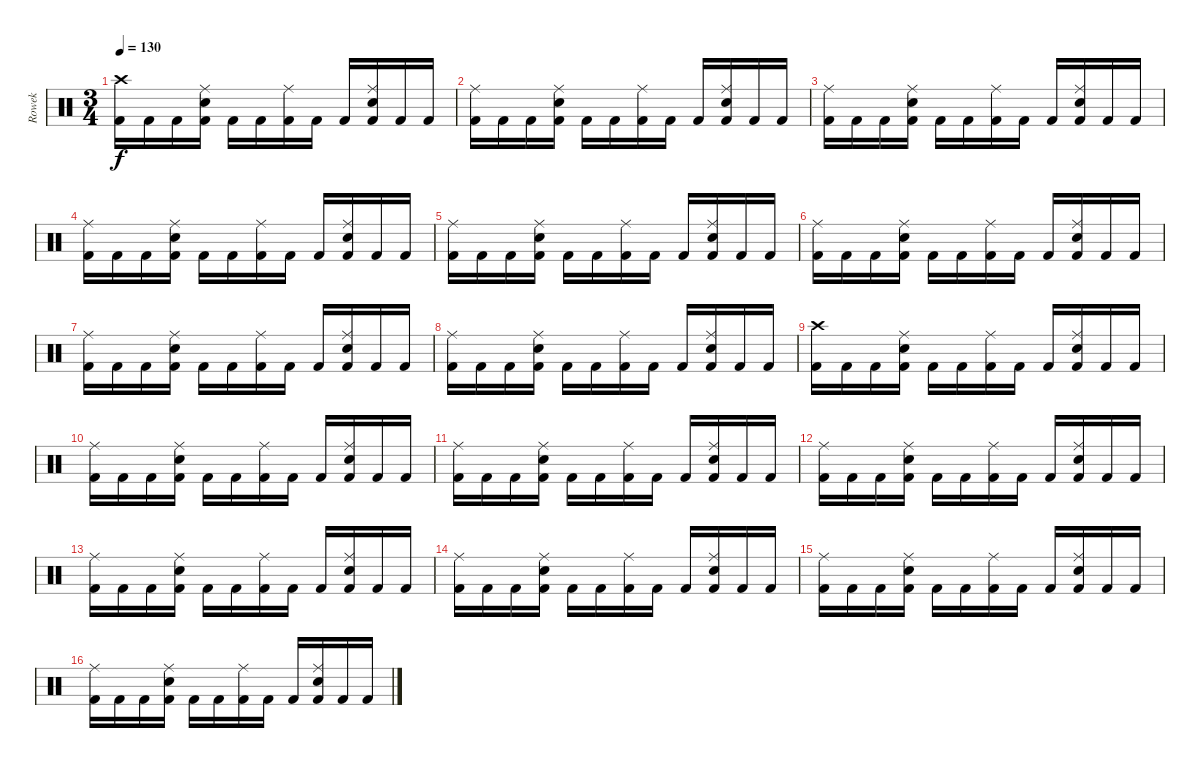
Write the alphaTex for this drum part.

\track ("Rowek" "Rowek") {instrument percussion}
\staff {score}
\articulation defaults
\ts (3 4)
\tempo 130
\clef neutral
\ks c
("Crash high (hit)" "Kick (hit) 2").16{dy f} "Kick (hit) 2".16 "Kick (hit) 2".16 ("Ride (middle)" "Snare (hit) 2" "Kick (hit) 2").16 "Kick (hit) 2".16 "Kick (hit) 2".16 ("Ride (middle)" "Kick (hit) 2").16 "Kick (hit) 2".16 "Kick (hit) 2".16 ("Ride (middle)" "Snare (hit) 2" "Kick (hit) 2").16 "Kick (hit) 2".16 "Kick (hit) 2".16 |
("Ride (middle)" "Kick (hit) 2").16 "Kick (hit) 2".16 "Kick (hit) 2".16 ("Ride (middle)" "Snare (hit) 2" "Kick (hit) 2").16 "Kick (hit) 2".16 "Kick (hit) 2".16 ("Ride (middle)" "Kick (hit) 2").16 "Kick (hit) 2".16 "Kick (hit) 2".16 ("Ride (middle)" "Snare (hit) 2" "Kick (hit) 2").16 "Kick (hit) 2".16 "Kick (hit) 2".16 |
("Ride (middle)" "Kick (hit) 2").16 "Kick (hit) 2".16 "Kick (hit) 2".16 ("Ride (middle)" "Snare (hit) 2" "Kick (hit) 2").16 "Kick (hit) 2".16 "Kick (hit) 2".16 ("Ride (middle)" "Kick (hit) 2").16 "Kick (hit) 2".16 "Kick (hit) 2".16 ("Ride (middle)" "Snare (hit) 2" "Kick (hit) 2").16 "Kick (hit) 2".16 "Kick (hit) 2".16 |
("Ride (middle)" "Kick (hit) 2").16 "Kick (hit) 2".16 "Kick (hit) 2".16 ("Ride (middle)" "Snare (hit) 2" "Kick (hit) 2").16 "Kick (hit) 2".16 "Kick (hit) 2".16 ("Ride (middle)" "Kick (hit) 2").16 "Kick (hit) 2".16 "Kick (hit) 2".16 ("Ride (middle)" "Snare (hit) 2" "Kick (hit) 2").16 "Kick (hit) 2".16 "Kick (hit) 2".16 |
("Ride (middle)" "Kick (hit) 2").16 "Kick (hit) 2".16 "Kick (hit) 2".16 ("Ride (middle)" "Snare (hit) 2" "Kick (hit) 2").16 "Kick (hit) 2".16 "Kick (hit) 2".16 ("Ride (middle)" "Kick (hit) 2").16 "Kick (hit) 2".16 "Kick (hit) 2".16 ("Ride (middle)" "Snare (hit) 2" "Kick (hit) 2").16 "Kick (hit) 2".16 "Kick (hit) 2".16 |
("Ride (middle)" "Kick (hit) 2").16 "Kick (hit) 2".16 "Kick (hit) 2".16 ("Ride (middle)" "Snare (hit) 2" "Kick (hit) 2").16 "Kick (hit) 2".16 "Kick (hit) 2".16 ("Ride (middle)" "Kick (hit) 2").16 "Kick (hit) 2".16 "Kick (hit) 2".16 ("Ride (middle)" "Snare (hit) 2" "Kick (hit) 2").16 "Kick (hit) 2".16 "Kick (hit) 2".16 |
("Ride (middle)" "Kick (hit) 2").16 "Kick (hit) 2".16 "Kick (hit) 2".16 ("Ride (middle)" "Snare (hit) 2" "Kick (hit) 2").16 "Kick (hit) 2".16 "Kick (hit) 2".16 ("Ride (middle)" "Kick (hit) 2").16 "Kick (hit) 2".16 "Kick (hit) 2".16 ("Ride (middle)" "Snare (hit) 2" "Kick (hit) 2").16 "Kick (hit) 2".16 "Kick (hit) 2".16 |
("Ride (middle)" "Kick (hit) 2").16 "Kick (hit) 2".16 "Kick (hit) 2".16 ("Ride (middle)" "Snare (hit) 2" "Kick (hit) 2").16 "Kick (hit) 2".16 "Kick (hit) 2".16 ("Ride (middle)" "Kick (hit) 2").16 "Kick (hit) 2".16 "Kick (hit) 2".16 ("Ride (middle)" "Snare (hit) 2" "Kick (hit) 2").16 "Kick (hit) 2".16 "Kick (hit) 2".16 |
("Crash high (hit)" "Kick (hit) 2").16 "Kick (hit) 2".16 "Kick (hit) 2".16 ("Ride (middle)" "Snare (hit) 2" "Kick (hit) 2").16 "Kick (hit) 2".16 "Kick (hit) 2".16 ("Ride (middle)" "Kick (hit) 2").16 "Kick (hit) 2".16 "Kick (hit) 2".16 ("Ride (middle)" "Snare (hit) 2" "Kick (hit) 2").16 "Kick (hit) 2".16 "Kick (hit) 2".16 |
("Ride (middle)" "Kick (hit) 2").16 "Kick (hit) 2".16 "Kick (hit) 2".16 ("Ride (middle)" "Snare (hit) 2" "Kick (hit) 2").16 "Kick (hit) 2".16 "Kick (hit) 2".16 ("Ride (middle)" "Kick (hit) 2").16 "Kick (hit) 2".16 "Kick (hit) 2".16 ("Ride (middle)" "Snare (hit) 2" "Kick (hit) 2").16 "Kick (hit) 2".16 "Kick (hit) 2".16 |
("Ride (middle)" "Kick (hit) 2").16 "Kick (hit) 2".16 "Kick (hit) 2".16 ("Ride (middle)" "Snare (hit) 2" "Kick (hit) 2").16 "Kick (hit) 2".16 "Kick (hit) 2".16 ("Ride (middle)" "Kick (hit) 2").16 "Kick (hit) 2".16 "Kick (hit) 2".16 ("Ride (middle)" "Snare (hit) 2" "Kick (hit) 2").16 "Kick (hit) 2".16 "Kick (hit) 2".16 |
("Ride (middle)" "Kick (hit) 2").16 "Kick (hit) 2".16 "Kick (hit) 2".16 ("Ride (middle)" "Snare (hit) 2" "Kick (hit) 2").16 "Kick (hit) 2".16 "Kick (hit) 2".16 ("Ride (middle)" "Kick (hit) 2").16 "Kick (hit) 2".16 "Kick (hit) 2".16 ("Ride (middle)" "Snare (hit) 2" "Kick (hit) 2").16 "Kick (hit) 2".16 "Kick (hit) 2".16 |
("Ride (middle)" "Kick (hit) 2").16 "Kick (hit) 2".16 "Kick (hit) 2".16 ("Ride (middle)" "Snare (hit) 2" "Kick (hit) 2").16 "Kick (hit) 2".16 "Kick (hit) 2".16 ("Ride (middle)" "Kick (hit) 2").16 "Kick (hit) 2".16 "Kick (hit) 2".16 ("Ride (middle)" "Snare (hit) 2" "Kick (hit) 2").16 "Kick (hit) 2".16 "Kick (hit) 2".16 |
("Ride (middle)" "Kick (hit) 2").16 "Kick (hit) 2".16 "Kick (hit) 2".16 ("Ride (middle)" "Snare (hit) 2" "Kick (hit) 2").16 "Kick (hit) 2".16 "Kick (hit) 2".16 ("Ride (middle)" "Kick (hit) 2").16 "Kick (hit) 2".16 "Kick (hit) 2".16 ("Ride (middle)" "Snare (hit) 2" "Kick (hit) 2").16 "Kick (hit) 2".16 "Kick (hit) 2".16 |
("Ride (middle)" "Kick (hit) 2").16 "Kick (hit) 2".16 "Kick (hit) 2".16 ("Ride (middle)" "Snare (hit) 2" "Kick (hit) 2").16 "Kick (hit) 2".16 "Kick (hit) 2".16 ("Ride (middle)" "Kick (hit) 2").16 "Kick (hit) 2".16 "Kick (hit) 2".16 ("Ride (middle)" "Snare (hit) 2" "Kick (hit) 2").16 "Kick (hit) 2".16 "Kick (hit) 2".16 |
("Ride (middle)" "Kick (hit) 2").16 "Kick (hit) 2".16 "Kick (hit) 2".16 ("Ride (middle)" "Snare (hit) 2" "Kick (hit) 2").16 "Kick (hit) 2".16 "Kick (hit) 2".16 ("Ride (middle)" "Kick (hit) 2").16 "Kick (hit) 2".16 "Kick (hit) 2".16 ("Ride (middle)" "Snare (hit) 2" "Kick (hit) 2").16 "Kick (hit) 2".16 "Kick (hit) 2".16
